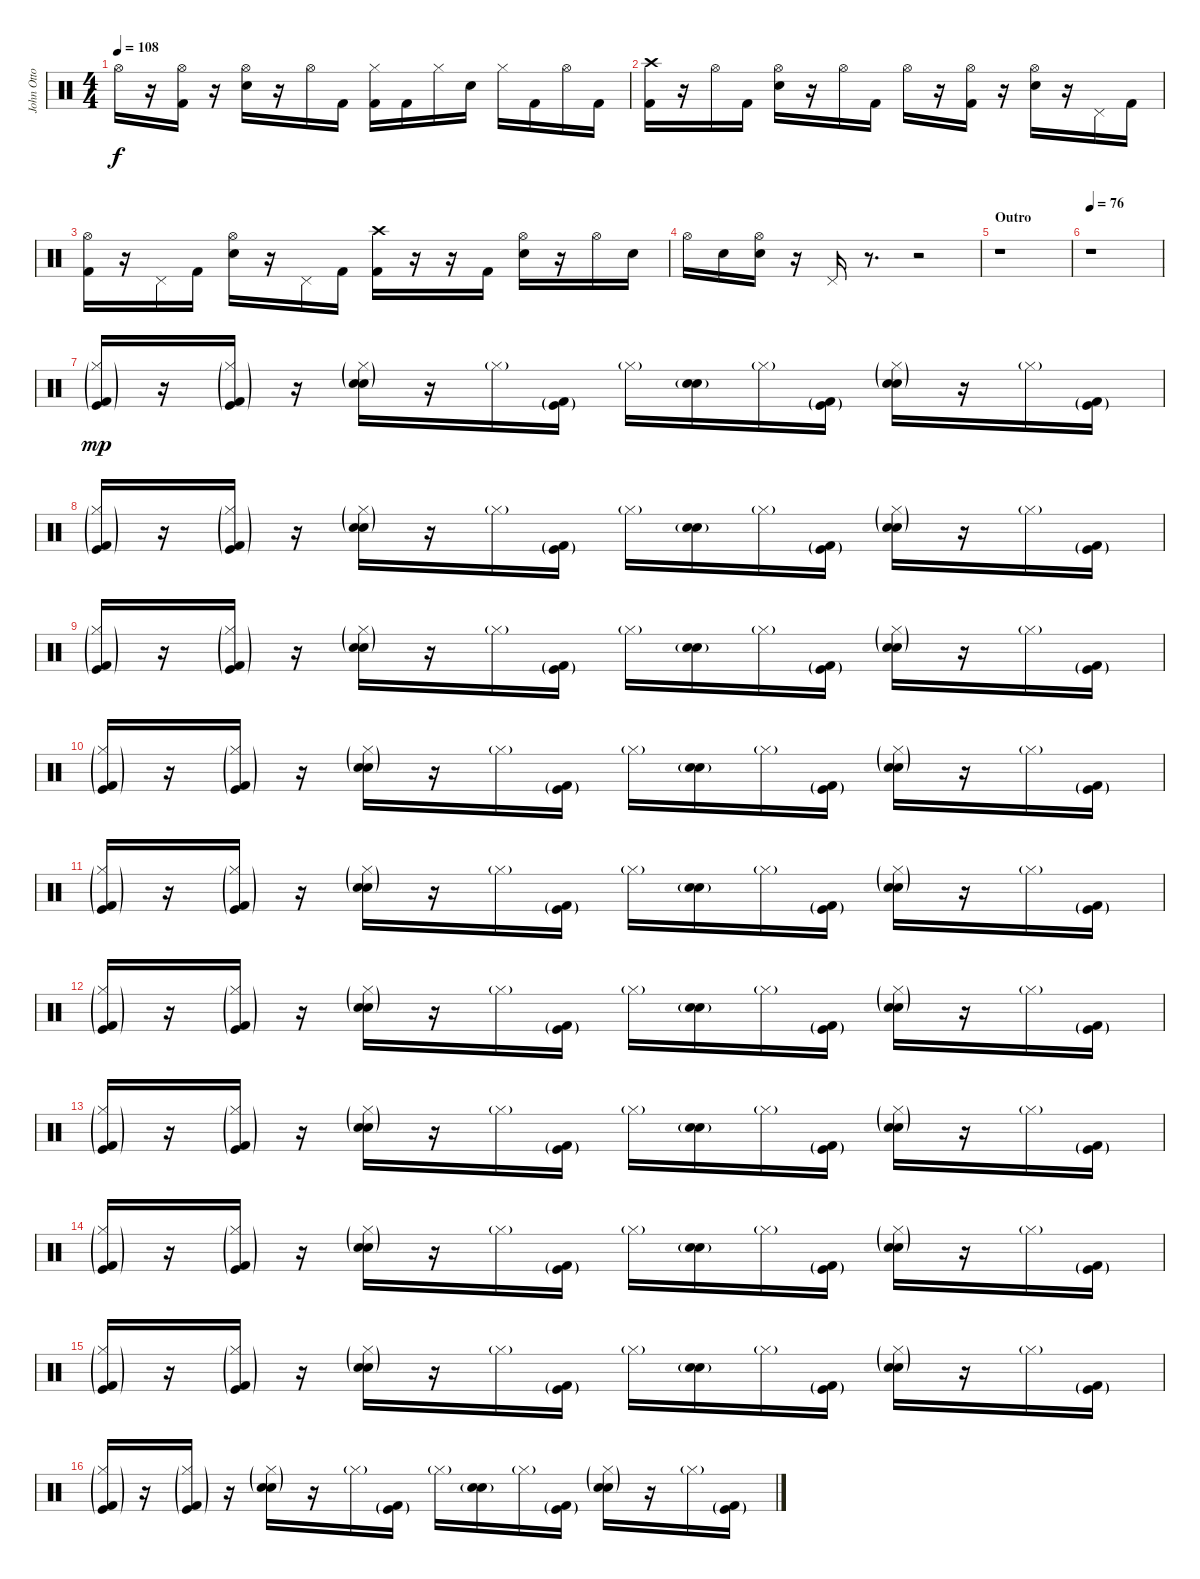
\track ("John Otto - Drums" "John Otto ") {instrument percussion}
\staff {score}
\articulation defaults
\ts (4 4)
\tempo 108
\clef neutral
\ks c "Hi-Hat (open)".16{dy f}
r.16 ("Hi-Hat (open)" "Kick (hit) 2").16 r.16 ("Hi-Hat (open)" "Snare (hit) 2").16 r.16 "Hi-Hat (open)".16 "Kick (hit) 2".16 ("Hi-Hat (closed)" "Kick (hit) 2").16 "Kick (hit) 2".16 "Hi-Hat (closed)".16 "Snare (hit) 2".16 "Hi-Hat (closed)".16 "Kick (hit) 2".16 "Hi-Hat (open)".16 "Kick (hit) 2".16 |
("Crash high (hit)" "Kick (hit) 2").16 r.16 "Hi-Hat (open)".16 "Kick (hit) 2".16 ("Hi-Hat (open)" "Snare (hit) 2").16 r.16 "Hi-Hat (open)".16 "Kick (hit) 2".16 "Hi-Hat (open)".16 r.16 ("Hi-Hat (open)" "Kick (hit) 2").16 r.16 ("Hi-Hat (open)" "Snare (hit) 2").16 r.16 "Pedal Hi-Hat (hit)".16 "Kick (hit) 2".16 |
("Hi-Hat (open)" "Kick (hit) 2").16 r.16 "Pedal Hi-Hat (hit)".16 "Kick (hit) 2".16 ("Hi-Hat (open)" "Snare (hit) 2").16 r.16 "Pedal Hi-Hat (hit)".16 "Kick (hit) 2".16 ("Crash high (hit)" "Kick (hit) 2").16 r.16 r.16 "Kick (hit) 2".16 ("Hi-Hat (open)" "Snare (hit) 2").16 r.16 "Hi-Hat (open)".16 "Snare (hit) 2".16 |
"Hi-Hat (open)".16 "Snare (hit) 2".16 ("Hi-Hat (open)" "Snare (hit) 2").16 r.16 "Pedal Hi-Hat (hit)".16 r.8{d} r.2 |
\section ("" "Outro")
r.1 |
\tempo 76
r.1 |
("Hi-Hat (closed)"{g} "Kick (hit)"{g} "Kick (hit) 2"{g}).16{dy mp} r.16 ("Hi-Hat (closed)"{g} "Kick (hit)"{g} "Kick (hit) 2"{g}).16 r.16 ("Hi-Hat (closed)"{g} "Electric Snare (hit)"{g} "Snare (hit) 2"{g}).16 r.16 "Hi-Hat (closed)"{g}.16 ("Kick (hit)"{g} "Kick (hit) 2"{g}).16 "Hi-Hat (closed)"{g}.16 ("Electric Snare (hit)"{g} "Snare (hit) 2"{g}).16 "Hi-Hat (closed)"{g}.16 ("Kick (hit)"{g} "Kick (hit) 2"{g}).16 ("Hi-Hat (closed)"{g} "Electric Snare (hit)"{g} "Snare (hit) 2"{g}).16 r.16 "Hi-Hat (closed)"{g}.16 ("Kick (hit)"{g} "Kick (hit) 2"{g}).16 |
("Hi-Hat (closed)"{g} "Kick (hit)"{g} "Kick (hit) 2"{g}).16 r.16 ("Hi-Hat (closed)"{g} "Kick (hit)"{g} "Kick (hit) 2"{g}).16 r.16 ("Hi-Hat (closed)"{g} "Electric Snare (hit)"{g} "Snare (hit) 2"{g}).16 r.16 "Hi-Hat (closed)"{g}.16 ("Kick (hit)"{g} "Kick (hit) 2"{g}).16 "Hi-Hat (closed)"{g}.16 ("Electric Snare (hit)"{g} "Snare (hit) 2"{g}).16 "Hi-Hat (closed)"{g}.16 ("Kick (hit)"{g} "Kick (hit) 2"{g}).16 ("Hi-Hat (closed)"{g} "Electric Snare (hit)"{g} "Snare (hit) 2"{g}).16 r.16 "Hi-Hat (closed)"{g}.16 ("Kick (hit)"{g} "Kick (hit) 2"{g}).16 |
("Hi-Hat (closed)"{g} "Kick (hit)"{g} "Kick (hit) 2"{g}).16 r.16 ("Hi-Hat (closed)"{g} "Kick (hit)"{g} "Kick (hit) 2"{g}).16 r.16 ("Hi-Hat (closed)"{g} "Electric Snare (hit)"{g} "Snare (hit) 2"{g}).16 r.16 "Hi-Hat (closed)"{g}.16 ("Kick (hit)"{g} "Kick (hit) 2"{g}).16 "Hi-Hat (closed)"{g}.16 ("Electric Snare (hit)"{g} "Snare (hit) 2"{g}).16 "Hi-Hat (closed)"{g}.16 ("Kick (hit)"{g} "Kick (hit) 2"{g}).16 ("Hi-Hat (closed)"{g} "Electric Snare (hit)"{g} "Snare (hit) 2"{g}).16 r.16 "Hi-Hat (closed)"{g}.16 ("Kick (hit)"{g} "Kick (hit) 2"{g}).16 |
("Hi-Hat (closed)"{g} "Kick (hit)"{g} "Kick (hit) 2"{g}).16 r.16 ("Hi-Hat (closed)"{g} "Kick (hit)"{g} "Kick (hit) 2"{g}).16 r.16 ("Hi-Hat (closed)"{g} "Electric Snare (hit)"{g} "Snare (hit) 2"{g}).16 r.16 "Hi-Hat (closed)"{g}.16 ("Kick (hit)"{g} "Kick (hit) 2"{g}).16 "Hi-Hat (closed)"{g}.16 ("Electric Snare (hit)"{g} "Snare (hit) 2"{g}).16 "Hi-Hat (closed)"{g}.16 ("Kick (hit)"{g} "Kick (hit) 2"{g}).16 ("Hi-Hat (closed)"{g} "Electric Snare (hit)"{g} "Snare (hit) 2"{g}).16 r.16 "Hi-Hat (closed)"{g}.16 ("Kick (hit)"{g} "Kick (hit) 2"{g}).16 |
("Hi-Hat (closed)"{g} "Kick (hit)"{g} "Kick (hit) 2"{g}).16 r.16 ("Hi-Hat (closed)"{g} "Kick (hit)"{g} "Kick (hit) 2"{g}).16 r.16 ("Hi-Hat (closed)"{g} "Electric Snare (hit)"{g} "Snare (hit) 2"{g}).16 r.16 "Hi-Hat (closed)"{g}.16 ("Kick (hit)"{g} "Kick (hit) 2"{g}).16 "Hi-Hat (closed)"{g}.16 ("Electric Snare (hit)"{g} "Snare (hit) 2"{g}).16 "Hi-Hat (closed)"{g}.16 ("Kick (hit)"{g} "Kick (hit) 2"{g}).16 ("Hi-Hat (closed)"{g} "Electric Snare (hit)"{g} "Snare (hit) 2"{g}).16 r.16 "Hi-Hat (closed)"{g}.16 ("Kick (hit)"{g} "Kick (hit) 2"{g}).16 |
("Hi-Hat (closed)"{g} "Kick (hit)"{g} "Kick (hit) 2"{g}).16 r.16 ("Hi-Hat (closed)"{g} "Kick (hit)"{g} "Kick (hit) 2"{g}).16 r.16 ("Hi-Hat (closed)"{g} "Electric Snare (hit)"{g} "Snare (hit) 2"{g}).16 r.16 "Hi-Hat (closed)"{g}.16 ("Kick (hit)"{g} "Kick (hit) 2"{g}).16 "Hi-Hat (closed)"{g}.16 ("Electric Snare (hit)"{g} "Snare (hit) 2"{g}).16 "Hi-Hat (closed)"{g}.16 ("Kick (hit)"{g} "Kick (hit) 2"{g}).16 ("Hi-Hat (closed)"{g} "Electric Snare (hit)"{g} "Snare (hit) 2"{g}).16 r.16 "Hi-Hat (closed)"{g}.16 ("Kick (hit)"{g} "Kick (hit) 2"{g}).16 |
("Hi-Hat (closed)"{g} "Kick (hit)"{g} "Kick (hit) 2"{g}).16 r.16 ("Hi-Hat (closed)"{g} "Kick (hit)"{g} "Kick (hit) 2"{g}).16 r.16 ("Hi-Hat (closed)"{g} "Electric Snare (hit)"{g} "Snare (hit) 2"{g}).16 r.16 "Hi-Hat (closed)"{g}.16 ("Kick (hit)"{g} "Kick (hit) 2"{g}).16 "Hi-Hat (closed)"{g}.16 ("Electric Snare (hit)"{g} "Snare (hit) 2"{g}).16 "Hi-Hat (closed)"{g}.16 ("Kick (hit)"{g} "Kick (hit) 2"{g}).16 ("Hi-Hat (closed)"{g} "Electric Snare (hit)"{g} "Snare (hit) 2"{g}).16 r.16 "Hi-Hat (closed)"{g}.16 ("Kick (hit)"{g} "Kick (hit) 2"{g}).16 |
("Hi-Hat (closed)"{g} "Kick (hit)"{g} "Kick (hit) 2"{g}).16 r.16 ("Hi-Hat (closed)"{g} "Kick (hit)"{g} "Kick (hit) 2"{g}).16 r.16 ("Hi-Hat (closed)"{g} "Electric Snare (hit)"{g} "Snare (hit) 2"{g}).16 r.16 "Hi-Hat (closed)"{g}.16 ("Kick (hit)"{g} "Kick (hit) 2"{g}).16 "Hi-Hat (closed)"{g}.16 ("Electric Snare (hit)"{g} "Snare (hit) 2"{g}).16 "Hi-Hat (closed)"{g}.16 ("Kick (hit)"{g} "Kick (hit) 2"{g}).16 ("Hi-Hat (closed)"{g} "Electric Snare (hit)"{g} "Snare (hit) 2"{g}).16 r.16 "Hi-Hat (closed)"{g}.16 ("Kick (hit)"{g} "Kick (hit) 2"{g}).16 |
("Hi-Hat (closed)"{g} "Kick (hit)"{g} "Kick (hit) 2"{g}).16 r.16 ("Hi-Hat (closed)"{g} "Kick (hit)"{g} "Kick (hit) 2"{g}).16 r.16 ("Hi-Hat (closed)"{g} "Electric Snare (hit)"{g} "Snare (hit) 2"{g}).16 r.16 "Hi-Hat (closed)"{g}.16 ("Kick (hit)"{g} "Kick (hit) 2"{g}).16 "Hi-Hat (closed)"{g}.16 ("Electric Snare (hit)"{g} "Snare (hit) 2"{g}).16 "Hi-Hat (closed)"{g}.16 ("Kick (hit)"{g} "Kick (hit) 2"{g}).16 ("Hi-Hat (closed)"{g} "Electric Snare (hit)"{g} "Snare (hit) 2"{g}).16 r.16 "Hi-Hat (closed)"{g}.16 ("Kick (hit)"{g} "Kick (hit) 2"{g}).16 |
("Hi-Hat (closed)"{g} "Kick (hit)"{g} "Kick (hit) 2"{g}).16 r.16 ("Hi-Hat (closed)"{g} "Kick (hit)"{g} "Kick (hit) 2"{g}).16 r.16 ("Hi-Hat (closed)"{g} "Electric Snare (hit)"{g} "Snare (hit) 2"{g}).16 r.16 "Hi-Hat (closed)"{g}.16 ("Kick (hit)"{g} "Kick (hit) 2"{g}).16 "Hi-Hat (closed)"{g}.16 ("Electric Snare (hit)"{g} "Snare (hit) 2"{g}).16 "Hi-Hat (closed)"{g}.16 ("Kick (hit)"{g} "Kick (hit) 2"{g}).16 ("Hi-Hat (closed)"{g} "Electric Snare (hit)"{g} "Snare (hit) 2"{g}).16 r.16 "Hi-Hat (closed)"{g}.16 ("Kick (hit)"{g} "Kick (hit) 2"{g}).16
